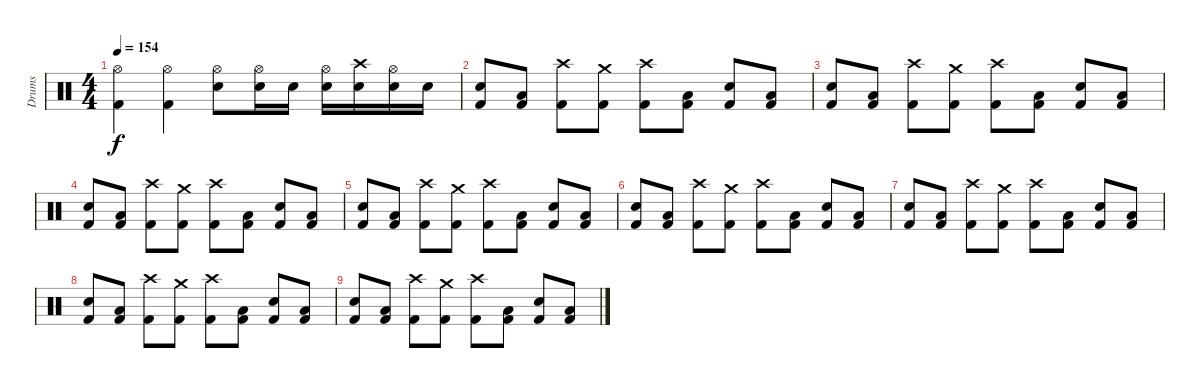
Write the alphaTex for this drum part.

\track ("Drums" "Drums") {instrument percussion}
\staff {score}
\articulation defaults
\ts (4 4)
\tempo 154
\clef neutral
\ks c
("Hi-Hat (open)" "Kick (hit) 2").4{dy f} ("Hi-Hat (open)" "Kick (hit) 2").4 ("Hi-Hat (open)" "Snare (hit) 2").8 ("Hi-Hat (open)" "Snare (hit) 2").16 "Snare (hit) 2".16 ("Hi-Hat (open)" "Snare (hit) 2").16 ("Snare (hit) 2" "Crash high (hit)").16 ("Hi-Hat (open)" "Snare (hit) 2").16 "Snare (hit) 2".16 |
("Kick (hit) 2" "Snare (hit) 2").8 ("Kick (hit) 2" "Low Tom (hit)").8 ("Kick (hit) 2" "Crash high (hit)").8 ("Kick (hit) 2" "Crash medium (hit)").8 ("Kick (hit) 2" "Crash high (hit)").8 ("Kick (hit) 2" "Low Tom (hit)").8 ("Kick (hit) 2" "Snare (hit) 2").8 ("Kick (hit) 2" "Low Tom (hit)").8 |
("Kick (hit) 2" "Snare (hit) 2").8 ("Kick (hit) 2" "Low Tom (hit)").8 ("Kick (hit) 2" "Crash high (hit)").8 ("Kick (hit) 2" "Crash medium (hit)").8 ("Kick (hit) 2" "Crash high (hit)").8 ("Kick (hit) 2" "Low Tom (hit)").8 ("Kick (hit) 2" "Snare (hit) 2").8 ("Kick (hit) 2" "Low Tom (hit)").8 |
("Kick (hit) 2" "Snare (hit) 2").8 ("Kick (hit) 2" "Low Tom (hit)").8 ("Kick (hit) 2" "Crash high (hit)").8 ("Kick (hit) 2" "Crash medium (hit)").8 ("Kick (hit) 2" "Crash high (hit)").8 ("Kick (hit) 2" "Low Tom (hit)").8 ("Kick (hit) 2" "Snare (hit) 2").8 ("Kick (hit) 2" "Low Tom (hit)").8 |
("Kick (hit) 2" "Snare (hit) 2").8 ("Kick (hit) 2" "Low Tom (hit)").8 ("Kick (hit) 2" "Crash high (hit)").8 ("Kick (hit) 2" "Crash medium (hit)").8 ("Kick (hit) 2" "Crash high (hit)").8 ("Kick (hit) 2" "Low Tom (hit)").8 ("Kick (hit) 2" "Snare (hit) 2").8 ("Kick (hit) 2" "Low Tom (hit)").8 |
("Kick (hit) 2" "Snare (hit) 2").8 ("Kick (hit) 2" "Low Tom (hit)").8 ("Kick (hit) 2" "Crash high (hit)").8 ("Kick (hit) 2" "Crash medium (hit)").8 ("Kick (hit) 2" "Crash high (hit)").8 ("Kick (hit) 2" "Low Tom (hit)").8 ("Kick (hit) 2" "Snare (hit) 2").8 ("Kick (hit) 2" "Low Tom (hit)").8 |
("Kick (hit) 2" "Snare (hit) 2").8 ("Kick (hit) 2" "Low Tom (hit)").8 ("Kick (hit) 2" "Crash high (hit)").8 ("Kick (hit) 2" "Crash medium (hit)").8 ("Kick (hit) 2" "Crash high (hit)").8 ("Kick (hit) 2" "Low Tom (hit)").8 ("Kick (hit) 2" "Snare (hit) 2").8 ("Kick (hit) 2" "Low Tom (hit)").8 |
("Kick (hit) 2" "Snare (hit) 2").8 ("Kick (hit) 2" "Low Tom (hit)").8 ("Kick (hit) 2" "Crash high (hit)").8 ("Kick (hit) 2" "Crash medium (hit)").8 ("Kick (hit) 2" "Crash high (hit)").8 ("Kick (hit) 2" "Low Tom (hit)").8 ("Kick (hit) 2" "Snare (hit) 2").8 ("Kick (hit) 2" "Low Tom (hit)").8 |
("Kick (hit) 2" "Snare (hit) 2").8 ("Kick (hit) 2" "Low Tom (hit)").8 ("Kick (hit) 2" "Crash high (hit)").8 ("Kick (hit) 2" "Crash medium (hit)").8 ("Kick (hit) 2" "Crash high (hit)").8 ("Kick (hit) 2" "Low Tom (hit)").8 ("Kick (hit) 2" "Snare (hit) 2").8 ("Kick (hit) 2" "Low Tom (hit)").8
